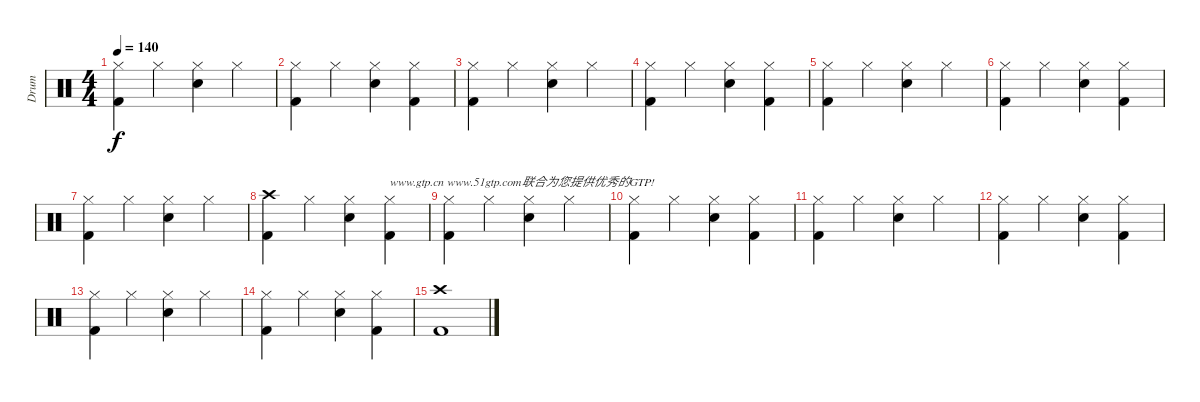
\track ("Drum" "Drum") {instrument percussion}
\staff {score}
\articulation defaults
\ts (4 4)
\tempo 140
\clef neutral
\ks c
("Hi-Hat (closed)" "Kick (hit) 2").4{dy f} "Hi-Hat (closed)".4 ("Hi-Hat (closed)" "Electric Snare (hit)").4 "Hi-Hat (closed)".4 |
("Hi-Hat (closed)" "Kick (hit) 2").4 "Hi-Hat (closed)".4 ("Hi-Hat (closed)" "Electric Snare (hit)").4 ("Hi-Hat (closed)" "Kick (hit) 2").4 |
("Hi-Hat (closed)" "Kick (hit) 2").4 "Hi-Hat (closed)".4 ("Hi-Hat (closed)" "Electric Snare (hit)").4 "Hi-Hat (closed)".4 |
("Hi-Hat (closed)" "Kick (hit) 2").4 "Hi-Hat (closed)".4 ("Hi-Hat (closed)" "Electric Snare (hit)").4 ("Hi-Hat (closed)" "Kick (hit) 2").4 |
("Hi-Hat (closed)" "Kick (hit) 2").4 "Hi-Hat (closed)".4 ("Hi-Hat (closed)" "Electric Snare (hit)").4 "Hi-Hat (closed)".4 |
("Hi-Hat (closed)" "Kick (hit) 2").4 "Hi-Hat (closed)".4 ("Hi-Hat (closed)" "Electric Snare (hit)").4 ("Hi-Hat (closed)" "Kick (hit) 2").4 |
("Hi-Hat (closed)" "Kick (hit) 2").4 "Hi-Hat (closed)".4 ("Hi-Hat (closed)" "Electric Snare (hit)").4 "Hi-Hat (closed)".4 |
("Crash high (hit)" "Kick (hit) 2").4 "Hi-Hat (closed)".4 ("Hi-Hat (closed)" "Electric Snare (hit)").4 ("Hi-Hat (closed)" "Kick (hit) 2").4{txt "www.gtp.cn www.51gtp.com联合为您提供优秀的GTP!"} |
("Hi-Hat (closed)" "Kick (hit) 2").4 "Hi-Hat (closed)".4 ("Hi-Hat (closed)" "Electric Snare (hit)").4 "Hi-Hat (closed)".4 |
("Hi-Hat (closed)" "Kick (hit) 2").4 "Hi-Hat (closed)".4 ("Hi-Hat (closed)" "Electric Snare (hit)").4 ("Hi-Hat (closed)" "Kick (hit) 2").4 |
("Hi-Hat (closed)" "Kick (hit) 2").4 "Hi-Hat (closed)".4 ("Hi-Hat (closed)" "Electric Snare (hit)").4 "Hi-Hat (closed)".4 |
("Hi-Hat (closed)" "Kick (hit) 2").4 "Hi-Hat (closed)".4 ("Hi-Hat (closed)" "Electric Snare (hit)").4 ("Hi-Hat (closed)" "Kick (hit) 2").4 |
("Hi-Hat (closed)" "Kick (hit) 2").4 "Hi-Hat (closed)".4 ("Hi-Hat (closed)" "Electric Snare (hit)").4 "Hi-Hat (closed)".4 |
("Hi-Hat (closed)" "Kick (hit) 2").4 "Hi-Hat (closed)".4 ("Hi-Hat (closed)" "Electric Snare (hit)").4 ("Hi-Hat (closed)" "Kick (hit) 2").4 |
("Crash high (hit)" "Kick (hit) 2").1
